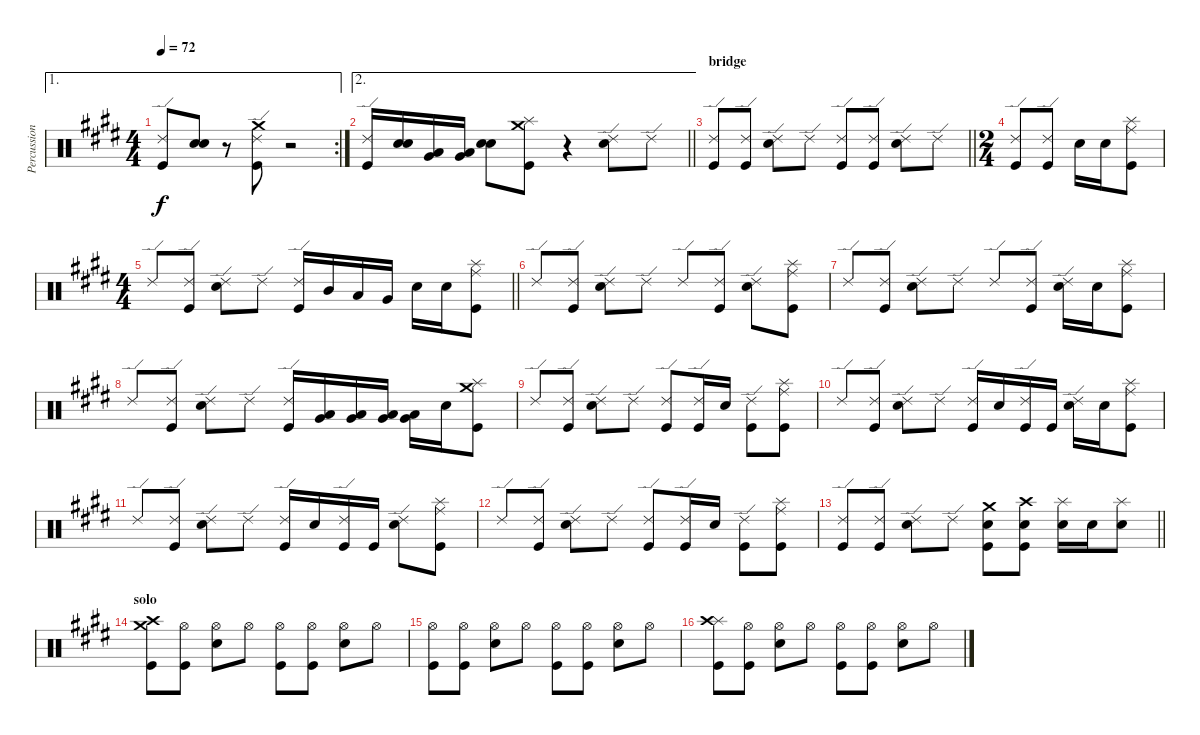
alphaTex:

\track ("Percussion" "Percussion") {instrument percussion}
\staff {score}
\articulation defaults
\ae 1
\rc 2
\ts (4 4)
\tempo 72
\clef neutral
\ks e
("Ride (edge) 2" "Kick (hit)").8{dy f} ("Electric Snare (hit)" "Snare (hit) 2").8 r.8 ("Ride (edge) 2" "Crash medium (hit)" "Kick (hit)").8 r.2 |
\ae 2
\barLineRight lightlight
("Ride (edge) 2" "Kick (hit)").16 ("Electric Snare (hit)" "Snare (hit) 2").16 ("Low Tom (hit)" "Very Low Tom (hit)").16 ("Low Tom (hit)" "Very Low Tom (hit)").16 ("Electric Snare (hit)" "Snare (hit) 2").8 ("Crash medium (hit)" "Splash (hit)" "Kick (hit)").8 r.4 ("Ride (edge) 2" "Snare (hit) 2").8{volume 6} "Ride (edge) 2".8 |
\section ("" "bridge")
\barLineRight lightlight
("Ride (edge) 2" "Kick (hit)").8 ("Ride (edge) 2" "Kick (hit)").8 ("Ride (edge) 2" "Snare (hit) 2").8 "Ride (edge) 2".8 ("Ride (edge) 2" "Kick (hit)").8 ("Ride (edge) 2" "Kick (hit)").8 ("Ride (edge) 2" "Snare (hit) 2").8 "Ride (edge) 2".8 |
\ts (2 4)
("Ride (edge) 2" "Kick (hit)").8 ("Ride (edge) 2" "Kick (hit)").8 "Snare (hit) 2".16 "Snare (hit) 2".16 ("Ride (middle)" "Splash (hit)" "Kick (hit)").8 |
\ts (4 4)
\barLineRight lightlight "Ride (edge) 2".8
("Ride (edge) 2" "Kick (hit)").8 ("Ride (edge) 2" "Snare (hit) 2").8 "Ride (edge) 2".8 ("Ride (edge) 2" "Kick (hit)").16 "Mid Tom (hit)".16 "Low Tom (hit)".16 "Very Low Tom (hit)".16 "Snare (hit) 2".16 "Snare (hit) 2".16 ("Ride (middle)" "Splash (hit)" "Kick (hit)").8 |
"Ride (edge) 2".8 ("Ride (edge) 2" "Kick (hit)").8 ("Ride (edge) 2" "Snare (hit) 2").8 "Ride (edge) 2".8 "Ride (edge) 2".8 ("Ride (edge) 2" "Kick (hit)").8 ("Ride (edge) 2" "Snare (hit) 2").8 ("Ride (middle)" "Splash (hit)" "Kick (hit)").8 |
"Ride (edge) 2".8 ("Ride (edge) 2" "Kick (hit)").8 ("Ride (edge) 2" "Snare (hit) 2").8 "Ride (edge) 2".8 "Ride (edge) 2".8 ("Ride (edge) 2" "Kick (hit)").8 ("Ride (edge) 2" "Snare (hit) 2").16 "Snare (hit) 2".16 ("Ride (middle)" "Splash (hit)" "Kick (hit)").8 |
"Ride (edge) 2".8 ("Ride (edge) 2" "Kick (hit)").8 ("Ride (edge) 2" "Snare (hit) 2").8 "Ride (edge) 2".8 ("Ride (edge) 2" "Kick (hit)").16 ("Low Tom (hit)" "Very Low Tom (hit)").16{volume 2} ("Low Tom (hit)" "Very Low Tom (hit)").16{volume 6} ("Low Tom (hit)" "Very Low Tom (hit)").16 ("Low Tom (hit)" "Very Low Tom (hit)").16 "Snare (hit) 2".16 ("Crash medium (hit)" "Splash (hit)" "Kick (hit)").8{volume 6} |
"Ride (edge) 2".8 ("Ride (edge) 2" "Kick (hit)").8 ("Ride (edge) 2" "Snare (hit) 2").8 "Ride (edge) 2".8 ("Ride (edge) 2" "Kick (hit)").8 ("Ride (edge) 2" "Kick (hit)").16 "Snare (hit) 2".16 ("Ride (edge) 2" "Kick (hit)").8 ("Ride (middle)" "Splash (hit)" "Kick (hit)").8 |
"Ride (edge) 2".8 ("Ride (edge) 2" "Kick (hit)").8 ("Ride (edge) 2" "Snare (hit) 2").8 "Ride (edge) 2".8 ("Ride (edge) 2" "Kick (hit)").16 "Snare (hit) 2".16 ("Ride (edge) 2" "Kick (hit)").16 "Kick (hit)".16 ("Ride (edge) 2" "Snare (hit) 2").16 "Snare (hit) 2".16 ("Ride (middle)" "Splash (hit)" "Kick (hit)").8 |
"Ride (edge) 2".8 ("Ride (edge) 2" "Kick (hit)").8 ("Ride (edge) 2" "Snare (hit) 2").8 "Ride (edge) 2".8 ("Ride (edge) 2" "Kick (hit)").16 "Snare (hit) 2".16 ("Ride (edge) 2" "Kick (hit)").16 "Kick (hit)".16 ("Ride (edge) 2" "Snare (hit) 2").8 ("Ride (middle)" "Splash (hit)" "Kick (hit)").8 |
"Ride (edge) 2".8 ("Ride (edge) 2" "Kick (hit)").8 ("Ride (edge) 2" "Snare (hit) 2").8 "Ride (edge) 2".8 ("Ride (edge) 2" "Kick (hit)").8 ("Ride (edge) 2" "Kick (hit)").16 "Snare (hit) 2".16 ("Ride (edge) 2" "Kick (hit)").8 ("Ride (middle)" "Splash (hit)" "Kick (hit)").8 |
\barLineRight lightlight
("Ride (edge) 2" "Kick (hit)").8 ("Ride (edge) 2" "Kick (hit)").8 ("Ride (edge) 2" "Snare (hit) 2").8 "Ride (edge) 2".8 ("Crash medium (hit)" "Snare (hit) 2" "Kick (hit)").8{volume 12} ("Crash high (hit)" "Snare (hit) 2" "Kick (hit)").8 ("Splash (hit)" "Snare (hit) 2").16 "Snare (hit) 2".16 ("Splash (hit)" "Snare (hit) 2").8 |
\section ("" "solo")
("Crash medium (hit)" "Crash high (hit)" "Kick (hit)").8 ("Hi-Hat (open)" "Kick (hit)").8 ("Hi-Hat (open)" "Snare (hit) 2").8 "Hi-Hat (open)".8 ("Hi-Hat (open)" "Kick (hit)").8 ("Hi-Hat (open)" "Kick (hit)").8 ("Hi-Hat (open)" "Snare (hit) 2").8 "Hi-Hat (open)".8 |
("Hi-Hat (open)" "Kick (hit)").8 ("Hi-Hat (open)" "Kick (hit)").8 ("Hi-Hat (open)" "Snare (hit) 2").8 "Hi-Hat (open)".8 ("Hi-Hat (open)" "Kick (hit)").8 ("Hi-Hat (open)" "Kick (hit)").8 ("Hi-Hat (open)" "Snare (hit) 2").8 "Hi-Hat (open)".8 |
("Splash (hit)" "Crash high (hit)" "Kick (hit)").8 ("Hi-Hat (open)" "Kick (hit)").8 ("Hi-Hat (open)" "Snare (hit) 2").8 "Hi-Hat (open)".8 ("Hi-Hat (open)" "Kick (hit)").8 ("Hi-Hat (open)" "Kick (hit)").8 ("Hi-Hat (open)" "Snare (hit) 2").8 "Hi-Hat (open)".8
